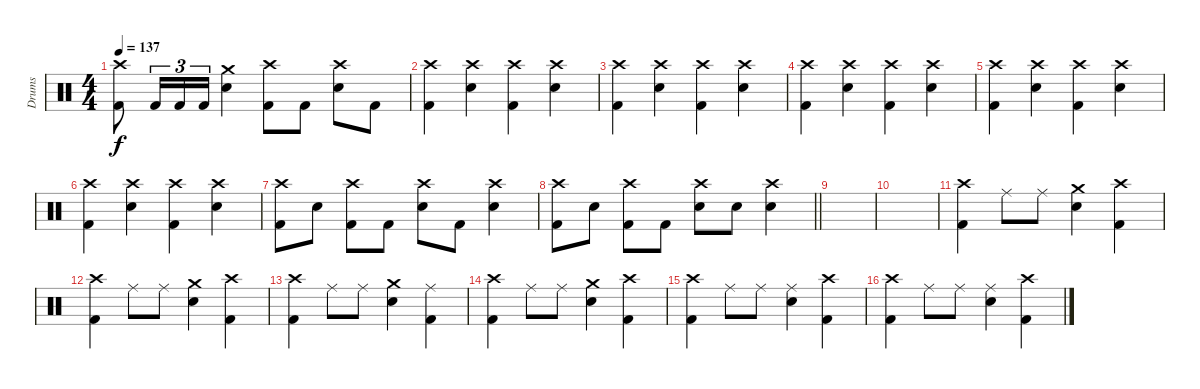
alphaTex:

\track ("Drums" "Drums") {instrument percussion}
\staff {score}
\articulation defaults
\ts (4 4)
\tempo 137
\clef neutral
\ks c
("Crash high (hit)" "Kick (hit) 2").8{dy f} "Kick (hit) 2".16{tu (3 2)} "Kick (hit) 2".16{tu (3 2)} "Kick (hit) 2".16{tu (3 2)} ("Crash medium (hit)" "Electric Snare (hit)").4 ("Crash high (hit)" "Kick (hit) 2").8 "Kick (hit) 2".8 ("Crash high (hit)" "Electric Snare (hit)").8 "Kick (hit) 2".8 |
("Crash high (hit)" "Kick (hit) 2").4 ("Crash high (hit)" "Electric Snare (hit)").4 ("Crash high (hit)" "Kick (hit) 2").4 ("Crash high (hit)" "Electric Snare (hit)").4 |
("Crash high (hit)" "Kick (hit) 2").4 ("Crash high (hit)" "Electric Snare (hit)").4 ("Crash high (hit)" "Kick (hit) 2").4 ("Crash high (hit)" "Electric Snare (hit)").4 |
("Crash high (hit)" "Kick (hit) 2").4 ("Crash high (hit)" "Electric Snare (hit)").4 ("Crash high (hit)" "Kick (hit) 2").4 ("Crash high (hit)" "Electric Snare (hit)").4 |
("Crash high (hit)" "Kick (hit) 2").4 ("Crash high (hit)" "Electric Snare (hit)").4 ("Crash high (hit)" "Kick (hit) 2").4 ("Crash high (hit)" "Electric Snare (hit)").4 |
("Crash high (hit)" "Kick (hit) 2").4 ("Crash high (hit)" "Electric Snare (hit)").4 ("Crash high (hit)" "Kick (hit) 2").4 ("Crash high (hit)" "Electric Snare (hit)").4 |
("Crash high (hit)" "Kick (hit) 2").8 "Electric Snare (hit)".8 ("Crash high (hit)" "Kick (hit) 2").8 "Kick (hit) 2".8 ("Crash high (hit)" "Electric Snare (hit)").8 "Kick (hit) 2".8 ("Crash high (hit)" "Electric Snare (hit)").4 |
\barLineRight lightlight
("Crash high (hit)" "Kick (hit) 2").8 "Electric Snare (hit)".8 ("Crash high (hit)" "Kick (hit) 2").8 "Kick (hit) 2".8 ("Crash high (hit)" "Electric Snare (hit)").8 "Electric Snare (hit)".8 ("Crash high (hit)" "Electric Snare (hit)").4 |
|
|
("Crash high (hit)" "Kick (hit) 2").4 "Ride (middle)".8 "Ride (middle)".8 ("Crash medium (hit)" "Electric Snare (hit)").4 ("Crash high (hit)" "Kick (hit) 2").4 |
("Crash high (hit)" "Kick (hit) 2").4 "Ride (middle)".8 "Ride (middle)".8 ("Crash medium (hit)" "Electric Snare (hit)").4 ("Crash high (hit)" "Kick (hit) 2").4 |
("Crash high (hit)" "Kick (hit) 2").4 "Ride (middle)".8 "Ride (middle)".8 ("Crash medium (hit)" "Electric Snare (hit)").4 ("Ride (middle)" "Kick (hit) 2").4 |
("Crash high (hit)" "Kick (hit) 2").4 "Ride (middle)".8 "Ride (middle)".8 ("Crash medium (hit)" "Electric Snare (hit)").4 ("Crash high (hit)" "Kick (hit) 2").4 |
("Crash high (hit)" "Kick (hit) 2").4 "Ride (middle)".8 "Ride (middle)".8 ("Ride (middle)" "Electric Snare (hit)").4 ("Crash high (hit)" "Kick (hit) 2").4 |
("Crash high (hit)" "Kick (hit) 2").4 "Ride (middle)".8 "Ride (middle)".8 ("Ride (middle)" "Electric Snare (hit)").4 ("Crash high (hit)" "Kick (hit) 2").4
